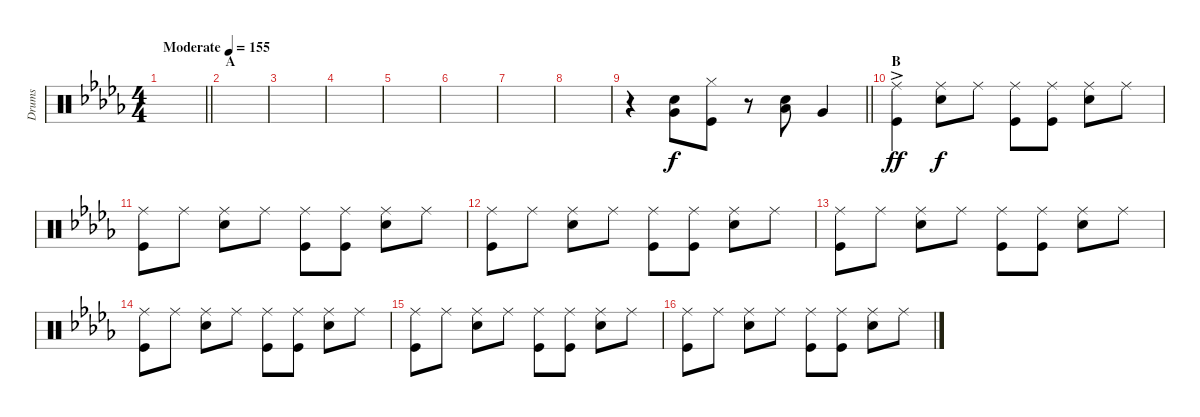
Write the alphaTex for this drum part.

\track ("Drums" "Drums") {instrument percussion}
\staff {score}
\articulation defaults
\ts (4 4)
\tempo (155 "Moderate")
\clef neutral
\barLineRight lightlight
\ks db
|
\section ("" "A")
|
|
|
|
|
|
|
\barLineRight lightlight
r.4 ("Snare (hit) 2" "Very Low Tom (hit)").8 ("Hi-Hat (closed)" "Kick (hit)").8 r.8 ("Low Tom (hit)" "Snare (hit) 2").8 "Very Low Tom (hit)".4 |
\section ("" "B")
("Ride (middle)"{ac} "Kick (hit)"{ac}).4{dy ff} ("Ride (middle)" "Snare (hit) 2").8{dy f} "Ride (middle)".8 ("Ride (middle)" "Kick (hit)").8 ("Ride (middle)" "Kick (hit)").8 ("Ride (middle)" "Snare (hit) 2").8 "Ride (middle)".8 |
("Ride (middle)" "Kick (hit)").8 "Ride (middle)".8 ("Ride (middle)" "Snare (hit) 2").8 "Ride (middle)".8 ("Ride (middle)" "Kick (hit)").8 ("Ride (middle)" "Kick (hit)").8 ("Ride (middle)" "Snare (hit) 2").8 "Ride (middle)".8 |
("Ride (middle)" "Kick (hit)").8 "Ride (middle)".8 ("Ride (middle)" "Snare (hit) 2").8 "Ride (middle)".8 ("Ride (middle)" "Kick (hit)").8 ("Ride (middle)" "Kick (hit)").8 ("Ride (middle)" "Snare (hit) 2").8 "Ride (middle)".8 |
("Ride (middle)" "Kick (hit)").8 "Ride (middle)".8 ("Ride (middle)" "Snare (hit) 2").8 "Ride (middle)".8 ("Ride (middle)" "Kick (hit)").8 ("Ride (middle)" "Kick (hit)").8 ("Ride (middle)" "Snare (hit) 2").8 "Ride (middle)".8 |
("Ride (middle)" "Kick (hit)").8 "Ride (middle)".8 ("Ride (middle)" "Snare (hit) 2").8 "Ride (middle)".8 ("Ride (middle)" "Kick (hit)").8 ("Ride (middle)" "Kick (hit)").8 ("Ride (middle)" "Snare (hit) 2").8 "Ride (middle)".8 |
("Ride (middle)" "Kick (hit)").8 "Ride (middle)".8 ("Ride (middle)" "Snare (hit) 2").8 "Ride (middle)".8 ("Ride (middle)" "Kick (hit)").8 ("Ride (middle)" "Kick (hit)").8 ("Ride (middle)" "Snare (hit) 2").8 "Ride (middle)".8 |
("Ride (middle)" "Kick (hit)").8 "Ride (middle)".8 ("Ride (middle)" "Snare (hit) 2").8 "Ride (middle)".8 ("Ride (middle)" "Kick (hit)").8 ("Ride (middle)" "Kick (hit)").8 ("Ride (middle)" "Snare (hit) 2").8 "Ride (middle)".8
